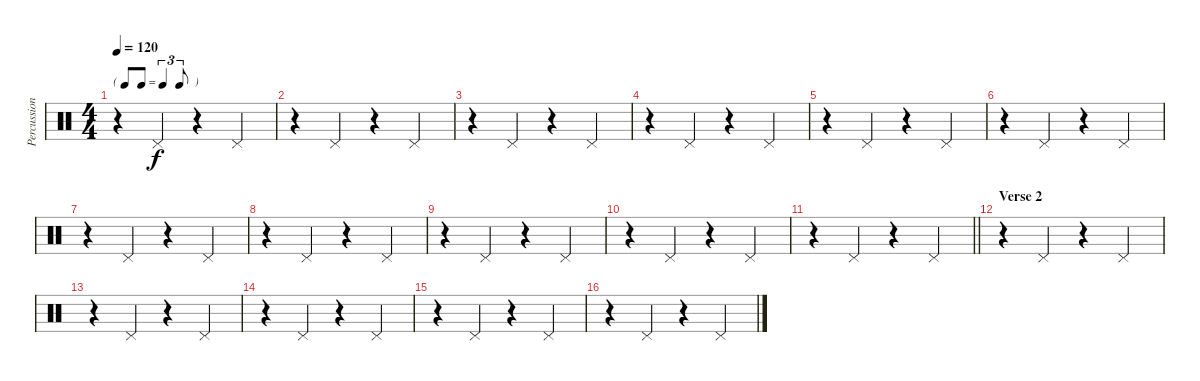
\track ("Percussion" "Percussion") {instrument percussion}
\staff {score}
\articulation defaults
\ts (4 4)
\tf triplet8th
\tempo 120
\clef neutral
\ks c
r.4{dy f} "Pedal Hi-Hat (hit)".4 r.4 "Pedal Hi-Hat (hit)".4 |
r.4 "Pedal Hi-Hat (hit)".4 r.4 "Pedal Hi-Hat (hit)".4 |
r.4 "Pedal Hi-Hat (hit)".4 r.4 "Pedal Hi-Hat (hit)".4 |
r.4 "Pedal Hi-Hat (hit)".4 r.4 "Pedal Hi-Hat (hit)".4 |
r.4 "Pedal Hi-Hat (hit)".4 r.4 "Pedal Hi-Hat (hit)".4 |
r.4 "Pedal Hi-Hat (hit)".4 r.4 "Pedal Hi-Hat (hit)".4 |
r.4 "Pedal Hi-Hat (hit)".4 r.4 "Pedal Hi-Hat (hit)".4 |
r.4 "Pedal Hi-Hat (hit)".4 r.4 "Pedal Hi-Hat (hit)".4 |
r.4 "Pedal Hi-Hat (hit)".4 r.4 "Pedal Hi-Hat (hit)".4 |
r.4 "Pedal Hi-Hat (hit)".4 r.4 "Pedal Hi-Hat (hit)".4 |
\barLineRight lightlight
r.4 "Pedal Hi-Hat (hit)".4 r.4 "Pedal Hi-Hat (hit)".4 |
\section ("" "Verse 2")
r.4 "Pedal Hi-Hat (hit)".4 r.4 "Pedal Hi-Hat (hit)".4 |
r.4 "Pedal Hi-Hat (hit)".4 r.4 "Pedal Hi-Hat (hit)".4 |
r.4 "Pedal Hi-Hat (hit)".4 r.4 "Pedal Hi-Hat (hit)".4 |
r.4 "Pedal Hi-Hat (hit)".4 r.4 "Pedal Hi-Hat (hit)".4 |
r.4 "Pedal Hi-Hat (hit)".4 r.4 "Pedal Hi-Hat (hit)".4
